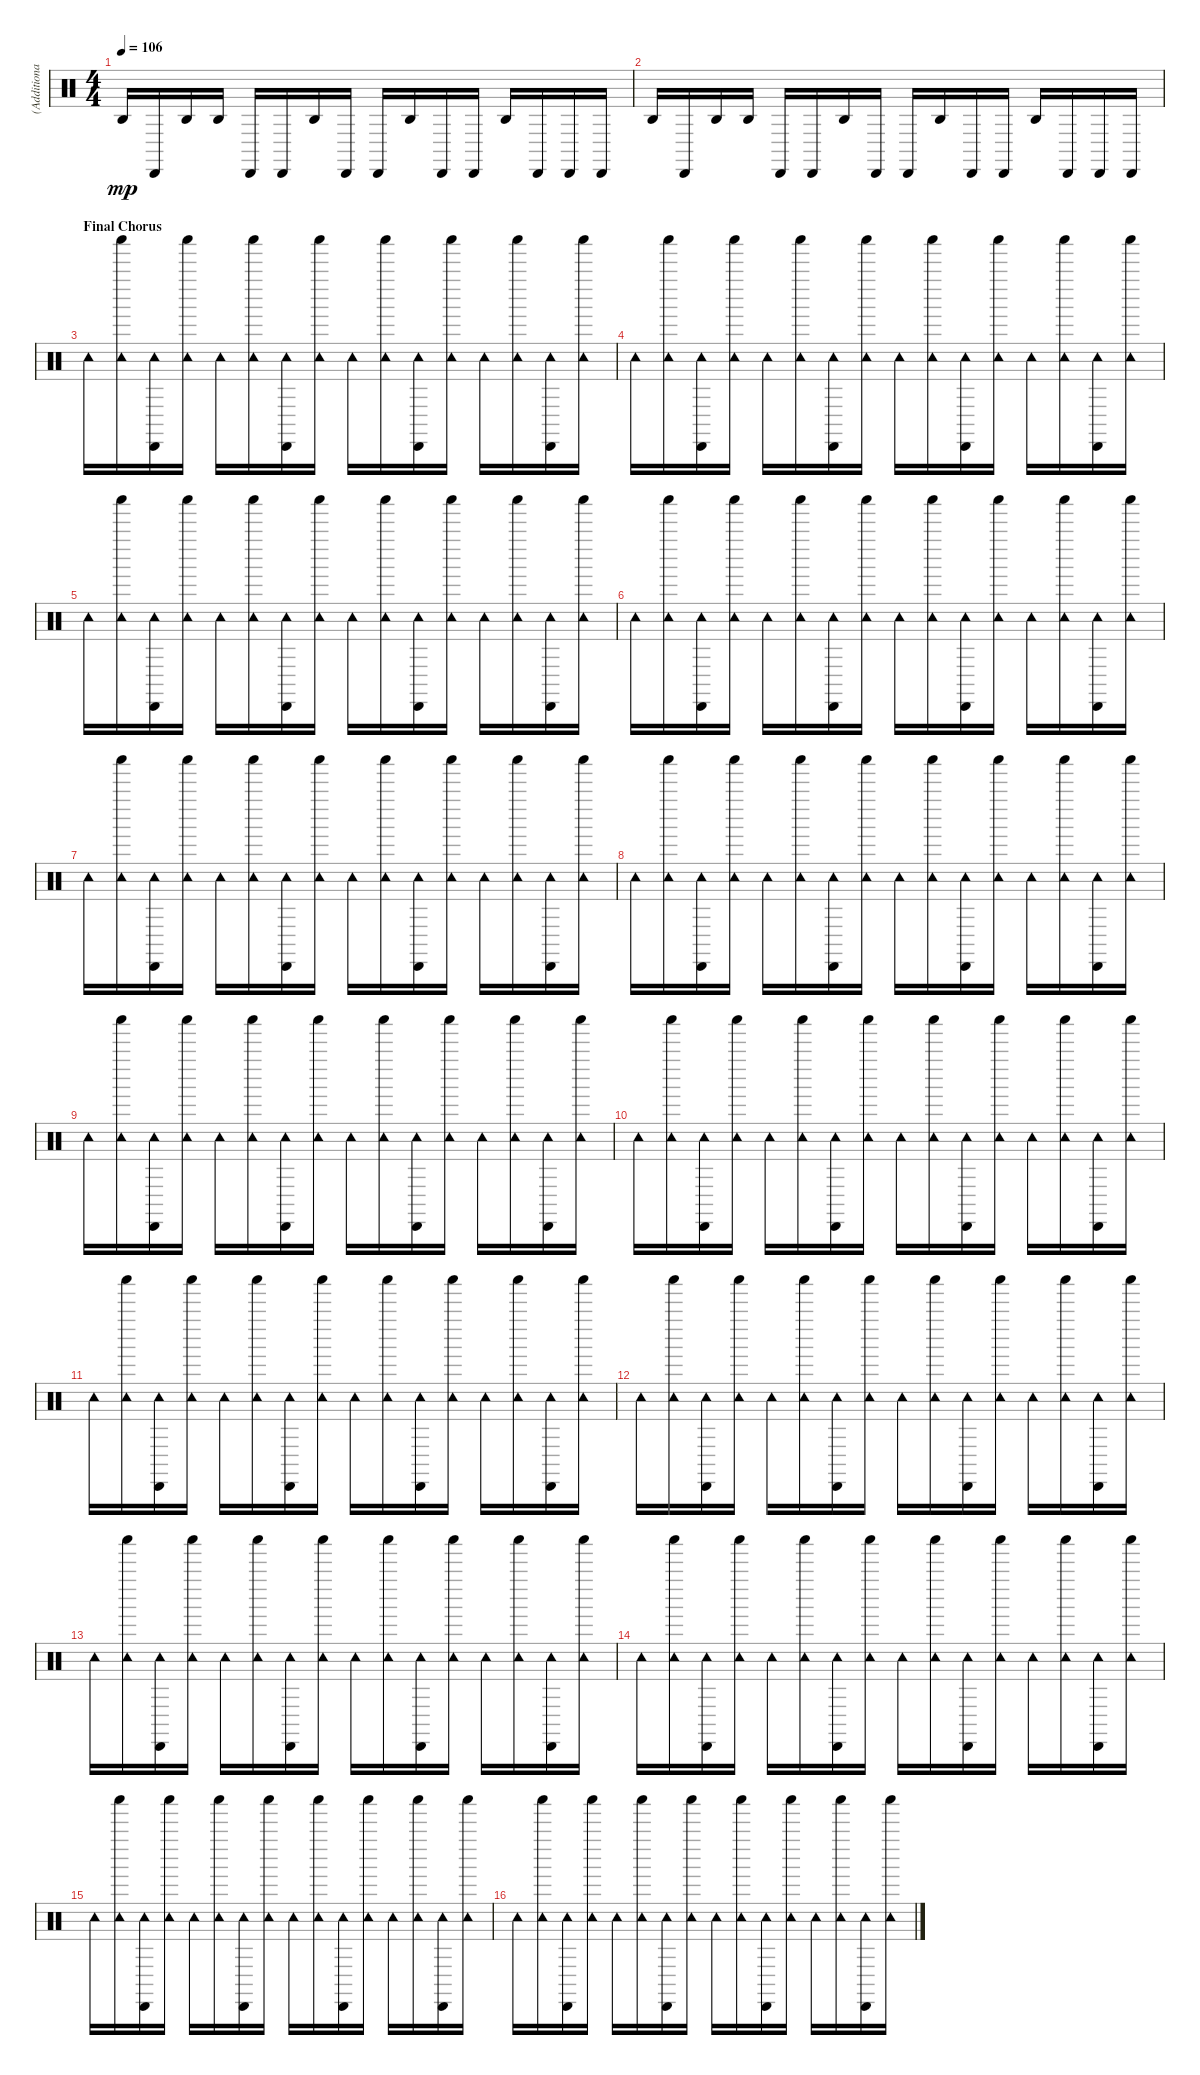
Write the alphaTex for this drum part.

\track ("(Additional Percussions)" "(Additiona") {instrument percussion}
\staff {score}
\articulation defaults
\ts (4 4)
\tempo 106
\clef neutral
\ks c "Agogo high (hit)".16{dy mp} "Cabasa (hit)".16 "Agogo high (hit)".16 "Agogo high (hit)".16 "Cabasa (hit)".16 "Cabasa (hit)".16 "Agogo high (hit)".16 "Cabasa (hit)".16 "Cabasa (hit)".16 "Agogo high (hit)".16 "Cabasa (hit)".16 "Cabasa (hit)".16 "Agogo high (hit)".16 "Cabasa (hit)".16 "Cabasa (hit)".16 "Cabasa (hit)".16
|
"Agogo high (hit)".16 "Cabasa (hit)".16 "Agogo high (hit)".16 "Agogo high (hit)".16 "Cabasa (hit)".16 "Cabasa (hit)".16 "Agogo high (hit)".16 "Cabasa (hit)".16 "Cabasa (hit)".16 "Agogo high (hit)".16 "Cabasa (hit)".16 "Cabasa (hit)".16 "Agogo high (hit)".16 "Cabasa (hit)".16 "Cabasa (hit)".16 "Cabasa (hit)".16 |
\section ("" "Final Chorus")
"Tambourine (hit)".16 ("Tambourine (hit)" "Shaker (hit)").16 ("Cabasa (hit)" "Tambourine (hit)").16 ("Tambourine (hit)" "Shaker (hit)").16 "Tambourine (hit)".16 ("Tambourine (hit)" "Shaker (hit)").16 ("Cabasa (hit)" "Tambourine (hit)").16 ("Tambourine (hit)" "Shaker (hit)").16 "Tambourine (hit)".16 ("Tambourine (hit)" "Shaker (hit)").16 ("Cabasa (hit)" "Tambourine (hit)").16 ("Tambourine (hit)" "Shaker (hit)").16 "Tambourine (hit)".16 ("Tambourine (hit)" "Shaker (hit)").16 ("Cabasa (hit)" "Tambourine (hit)").16 ("Tambourine (hit)" "Shaker (hit)").16 |
"Tambourine (hit)".16 ("Tambourine (hit)" "Shaker (hit)").16 ("Cabasa (hit)" "Tambourine (hit)").16 ("Tambourine (hit)" "Shaker (hit)").16 "Tambourine (hit)".16 ("Tambourine (hit)" "Shaker (hit)").16 ("Cabasa (hit)" "Tambourine (hit)").16 ("Tambourine (hit)" "Shaker (hit)").16 "Tambourine (hit)".16 ("Tambourine (hit)" "Shaker (hit)").16 ("Cabasa (hit)" "Tambourine (hit)").16 ("Tambourine (hit)" "Shaker (hit)").16 "Tambourine (hit)".16 ("Tambourine (hit)" "Shaker (hit)").16 ("Cabasa (hit)" "Tambourine (hit)").16 ("Tambourine (hit)" "Shaker (hit)").16 |
"Tambourine (hit)".16 ("Tambourine (hit)" "Shaker (hit)").16 ("Cabasa (hit)" "Tambourine (hit)").16 ("Tambourine (hit)" "Shaker (hit)").16 "Tambourine (hit)".16 ("Tambourine (hit)" "Shaker (hit)").16 ("Cabasa (hit)" "Tambourine (hit)").16 ("Tambourine (hit)" "Shaker (hit)").16 "Tambourine (hit)".16 ("Tambourine (hit)" "Shaker (hit)").16 ("Cabasa (hit)" "Tambourine (hit)").16 ("Tambourine (hit)" "Shaker (hit)").16 "Tambourine (hit)".16 ("Tambourine (hit)" "Shaker (hit)").16 ("Cabasa (hit)" "Tambourine (hit)").16 ("Tambourine (hit)" "Shaker (hit)").16 |
"Tambourine (hit)".16 ("Tambourine (hit)" "Shaker (hit)").16 ("Cabasa (hit)" "Tambourine (hit)").16 ("Tambourine (hit)" "Shaker (hit)").16 "Tambourine (hit)".16 ("Tambourine (hit)" "Shaker (hit)").16 ("Cabasa (hit)" "Tambourine (hit)").16 ("Tambourine (hit)" "Shaker (hit)").16 "Tambourine (hit)".16 ("Tambourine (hit)" "Shaker (hit)").16 ("Cabasa (hit)" "Tambourine (hit)").16 ("Tambourine (hit)" "Shaker (hit)").16 "Tambourine (hit)".16 ("Tambourine (hit)" "Shaker (hit)").16 ("Cabasa (hit)" "Tambourine (hit)").16 ("Tambourine (hit)" "Shaker (hit)").16 |
"Tambourine (hit)".16 ("Tambourine (hit)" "Shaker (hit)").16 ("Cabasa (hit)" "Tambourine (hit)").16 ("Tambourine (hit)" "Shaker (hit)").16 "Tambourine (hit)".16 ("Tambourine (hit)" "Shaker (hit)").16 ("Cabasa (hit)" "Tambourine (hit)").16 ("Tambourine (hit)" "Shaker (hit)").16 "Tambourine (hit)".16 ("Tambourine (hit)" "Shaker (hit)").16 ("Cabasa (hit)" "Tambourine (hit)").16 ("Tambourine (hit)" "Shaker (hit)").16 "Tambourine (hit)".16 ("Tambourine (hit)" "Shaker (hit)").16 ("Cabasa (hit)" "Tambourine (hit)").16 ("Tambourine (hit)" "Shaker (hit)").16 |
"Tambourine (hit)".16 ("Tambourine (hit)" "Shaker (hit)").16 ("Cabasa (hit)" "Tambourine (hit)").16 ("Tambourine (hit)" "Shaker (hit)").16 "Tambourine (hit)".16 ("Tambourine (hit)" "Shaker (hit)").16 ("Cabasa (hit)" "Tambourine (hit)").16 ("Tambourine (hit)" "Shaker (hit)").16 "Tambourine (hit)".16 ("Tambourine (hit)" "Shaker (hit)").16 ("Cabasa (hit)" "Tambourine (hit)").16 ("Tambourine (hit)" "Shaker (hit)").16 "Tambourine (hit)".16 ("Tambourine (hit)" "Shaker (hit)").16 ("Cabasa (hit)" "Tambourine (hit)").16 ("Tambourine (hit)" "Shaker (hit)").16 |
"Tambourine (hit)".16 ("Tambourine (hit)" "Shaker (hit)").16 ("Cabasa (hit)" "Tambourine (hit)").16 ("Tambourine (hit)" "Shaker (hit)").16 "Tambourine (hit)".16 ("Tambourine (hit)" "Shaker (hit)").16 ("Cabasa (hit)" "Tambourine (hit)").16 ("Tambourine (hit)" "Shaker (hit)").16 "Tambourine (hit)".16 ("Tambourine (hit)" "Shaker (hit)").16 ("Cabasa (hit)" "Tambourine (hit)").16 ("Tambourine (hit)" "Shaker (hit)").16 "Tambourine (hit)".16 ("Tambourine (hit)" "Shaker (hit)").16 ("Cabasa (hit)" "Tambourine (hit)").16 ("Tambourine (hit)" "Shaker (hit)").16 |
"Tambourine (hit)".16 ("Tambourine (hit)" "Shaker (hit)").16 ("Cabasa (hit)" "Tambourine (hit)").16 ("Tambourine (hit)" "Shaker (hit)").16 "Tambourine (hit)".16 ("Tambourine (hit)" "Shaker (hit)").16 ("Cabasa (hit)" "Tambourine (hit)").16 ("Tambourine (hit)" "Shaker (hit)").16 "Tambourine (hit)".16 ("Tambourine (hit)" "Shaker (hit)").16 ("Cabasa (hit)" "Tambourine (hit)").16 ("Tambourine (hit)" "Shaker (hit)").16 "Tambourine (hit)".16 ("Tambourine (hit)" "Shaker (hit)").16 ("Cabasa (hit)" "Tambourine (hit)").16 ("Tambourine (hit)" "Shaker (hit)").16 |
"Tambourine (hit)".16 ("Tambourine (hit)" "Shaker (hit)").16 ("Cabasa (hit)" "Tambourine (hit)").16 ("Tambourine (hit)" "Shaker (hit)").16 "Tambourine (hit)".16 ("Tambourine (hit)" "Shaker (hit)").16 ("Cabasa (hit)" "Tambourine (hit)").16 ("Tambourine (hit)" "Shaker (hit)").16 "Tambourine (hit)".16 ("Tambourine (hit)" "Shaker (hit)").16 ("Cabasa (hit)" "Tambourine (hit)").16 ("Tambourine (hit)" "Shaker (hit)").16 "Tambourine (hit)".16 ("Tambourine (hit)" "Shaker (hit)").16 ("Cabasa (hit)" "Tambourine (hit)").16 ("Tambourine (hit)" "Shaker (hit)").16 |
"Tambourine (hit)".16 ("Tambourine (hit)" "Shaker (hit)").16 ("Cabasa (hit)" "Tambourine (hit)").16 ("Tambourine (hit)" "Shaker (hit)").16 "Tambourine (hit)".16 ("Tambourine (hit)" "Shaker (hit)").16 ("Cabasa (hit)" "Tambourine (hit)").16 ("Tambourine (hit)" "Shaker (hit)").16 "Tambourine (hit)".16 ("Tambourine (hit)" "Shaker (hit)").16 ("Cabasa (hit)" "Tambourine (hit)").16 ("Tambourine (hit)" "Shaker (hit)").16 "Tambourine (hit)".16 ("Tambourine (hit)" "Shaker (hit)").16 ("Cabasa (hit)" "Tambourine (hit)").16 ("Tambourine (hit)" "Shaker (hit)").16 |
"Tambourine (hit)".16 ("Tambourine (hit)" "Shaker (hit)").16 ("Cabasa (hit)" "Tambourine (hit)").16 ("Tambourine (hit)" "Shaker (hit)").16 "Tambourine (hit)".16 ("Tambourine (hit)" "Shaker (hit)").16 ("Cabasa (hit)" "Tambourine (hit)").16 ("Tambourine (hit)" "Shaker (hit)").16 "Tambourine (hit)".16 ("Tambourine (hit)" "Shaker (hit)").16 ("Cabasa (hit)" "Tambourine (hit)").16 ("Tambourine (hit)" "Shaker (hit)").16 "Tambourine (hit)".16 ("Tambourine (hit)" "Shaker (hit)").16 ("Cabasa (hit)" "Tambourine (hit)").16 ("Tambourine (hit)" "Shaker (hit)").16 |
"Tambourine (hit)".16 ("Tambourine (hit)" "Shaker (hit)").16 ("Cabasa (hit)" "Tambourine (hit)").16 ("Tambourine (hit)" "Shaker (hit)").16 "Tambourine (hit)".16 ("Tambourine (hit)" "Shaker (hit)").16 ("Cabasa (hit)" "Tambourine (hit)").16 ("Tambourine (hit)" "Shaker (hit)").16 "Tambourine (hit)".16 ("Tambourine (hit)" "Shaker (hit)").16 ("Cabasa (hit)" "Tambourine (hit)").16 ("Tambourine (hit)" "Shaker (hit)").16 "Tambourine (hit)".16 ("Tambourine (hit)" "Shaker (hit)").16 ("Cabasa (hit)" "Tambourine (hit)").16 ("Tambourine (hit)" "Shaker (hit)").16 |
"Tambourine (hit)".16 ("Tambourine (hit)" "Shaker (hit)").16 ("Cabasa (hit)" "Tambourine (hit)").16 ("Tambourine (hit)" "Shaker (hit)").16 "Tambourine (hit)".16 ("Tambourine (hit)" "Shaker (hit)").16 ("Cabasa (hit)" "Tambourine (hit)").16 ("Tambourine (hit)" "Shaker (hit)").16 "Tambourine (hit)".16 ("Tambourine (hit)" "Shaker (hit)").16 ("Cabasa (hit)" "Tambourine (hit)").16 ("Tambourine (hit)" "Shaker (hit)").16 "Tambourine (hit)".16 ("Tambourine (hit)" "Shaker (hit)").16 ("Cabasa (hit)" "Tambourine (hit)").16 ("Tambourine (hit)" "Shaker (hit)").16 |
"Tambourine (hit)".16 ("Tambourine (hit)" "Shaker (hit)").16 ("Cabasa (hit)" "Tambourine (hit)").16 ("Tambourine (hit)" "Shaker (hit)").16 "Tambourine (hit)".16 ("Tambourine (hit)" "Shaker (hit)").16 ("Cabasa (hit)" "Tambourine (hit)").16 ("Tambourine (hit)" "Shaker (hit)").16 "Tambourine (hit)".16 ("Tambourine (hit)" "Shaker (hit)").16 ("Cabasa (hit)" "Tambourine (hit)").16 ("Tambourine (hit)" "Shaker (hit)").16 "Tambourine (hit)".16 ("Tambourine (hit)" "Shaker (hit)").16 ("Cabasa (hit)" "Tambourine (hit)").16 ("Tambourine (hit)" "Shaker (hit)").16
